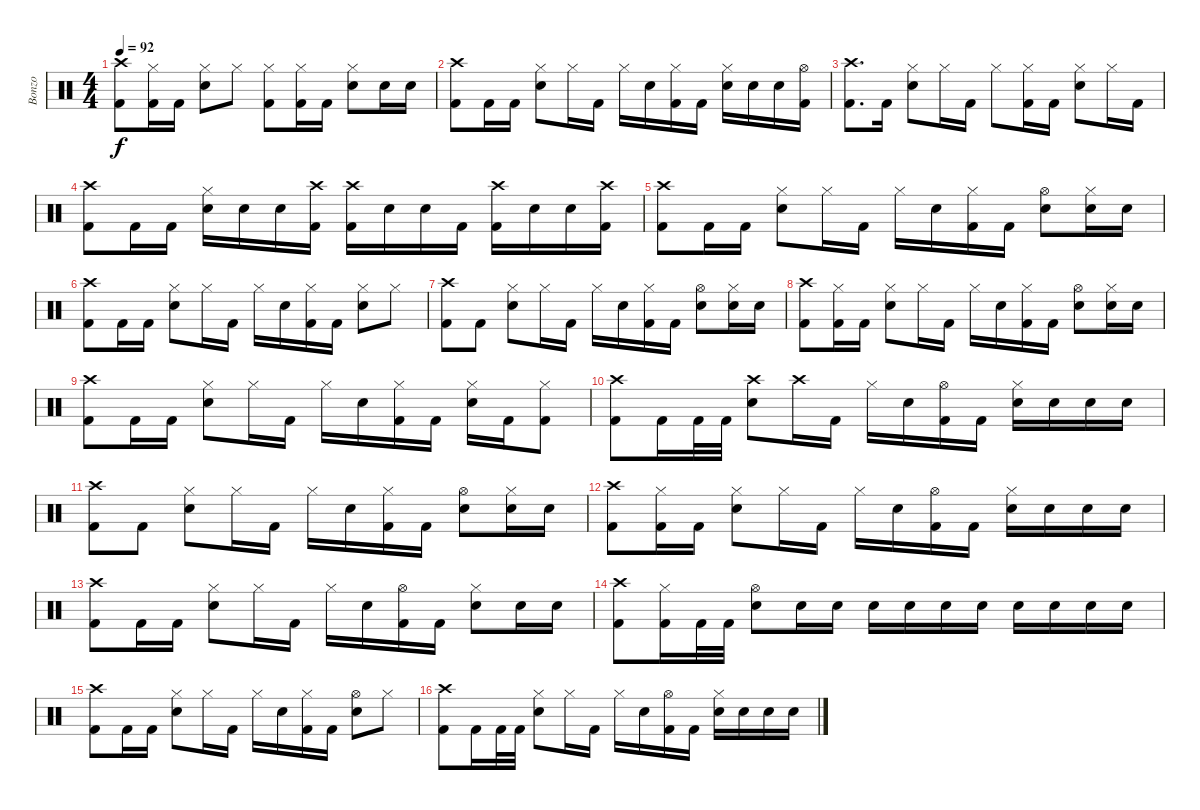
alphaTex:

\track ("Bonzo" "Bonzo") {instrument percussion}
\staff {score}
\articulation defaults
\ts (4 4)
\tempo 92
\clef neutral
\ks c
("Crash high (hit)" "Kick (hit) 2").8{dy f} ("Hi-Hat (closed)" "Kick (hit) 2").16 "Kick (hit) 2".16 ("Hi-Hat (closed)" "Snare (hit) 2").8 "Hi-Hat (closed)".8 ("Hi-Hat (closed)" "Kick (hit) 2").8 ("Hi-Hat (closed)" "Kick (hit) 2").16 "Kick (hit) 2".16 ("Hi-Hat (closed)" "Snare (hit) 2").8 "Snare (hit) 2".16 "Snare (hit) 2".16 |
("Crash high (hit)" "Kick (hit) 2").8 "Kick (hit) 2".16 "Kick (hit) 2".16 ("Hi-Hat (closed)" "Snare (hit) 2").8 "Hi-Hat (closed)".16 "Kick (hit) 2".16 "Hi-Hat (closed)".16 "Snare (hit) 2".16 ("Hi-Hat (closed)" "Kick (hit) 2").16 "Kick (hit) 2".16 ("Hi-Hat (closed)" "Snare (hit) 2").16 "Snare (hit) 2".16 "Snare (hit) 2".16 ("Hi-Hat (open)" "Kick (hit) 2").16 |
("Crash high (hit)" "Kick (hit) 2").8{d} "Kick (hit) 2".16 ("Hi-Hat (closed)" "Snare (hit) 2").8 "Hi-Hat (closed)".16 "Kick (hit) 2".16 "Hi-Hat (closed)".8 ("Hi-Hat (closed)" "Kick (hit) 2").16 "Kick (hit) 2".16 ("Hi-Hat (closed)" "Snare (hit) 2").8 "Hi-Hat (closed)".16 "Kick (hit) 2".16 |
("Crash high (hit)" "Kick (hit) 2").8 "Kick (hit) 2".16 "Kick (hit) 2".16 ("Hi-Hat (closed)" "Snare (hit) 2").16 "Snare (hit) 2".16 "Snare (hit) 2".16 ("Crash high (hit)" "Kick (hit) 2").16 ("Crash high (hit)" "Kick (hit) 2").16 "Snare (hit) 2".16 "Snare (hit) 2".16 "Kick (hit) 2".16 ("Crash high (hit)" "Kick (hit) 2").16 "Snare (hit) 2".16 "Snare (hit) 2".16 ("Crash high (hit)" "Kick (hit) 2").16 |
("Crash high (hit)" "Kick (hit) 2").8 "Kick (hit) 2".16 "Kick (hit) 2".16 ("Hi-Hat (closed)" "Snare (hit) 2").8 "Hi-Hat (closed)".16 "Kick (hit) 2".16 "Hi-Hat (closed)".16 "Snare (hit) 2".16 ("Hi-Hat (closed)" "Kick (hit) 2").16 "Kick (hit) 2".16 ("Hi-Hat (open)" "Snare (hit) 2").8 ("Hi-Hat (closed)" "Snare (hit) 2").16 "Snare (hit) 2".16 |
("Crash high (hit)" "Kick (hit) 2").8 "Kick (hit) 2".16 "Kick (hit) 2".16 ("Hi-Hat (closed)" "Snare (hit) 2").8 "Hi-Hat (closed)".16 "Kick (hit) 2".16 "Hi-Hat (closed)".16 "Snare (hit) 2".16 ("Hi-Hat (closed)" "Kick (hit) 2").16 "Kick (hit) 2".16 ("Hi-Hat (closed)" "Snare (hit) 2").8 "Hi-Hat (closed)".8 |
("Crash high (hit)" "Kick (hit) 2").8 "Kick (hit) 2".8 ("Hi-Hat (closed)" "Snare (hit) 2").8 "Hi-Hat (closed)".16 "Kick (hit) 2".16 "Hi-Hat (closed)".16 "Snare (hit) 2".16 ("Hi-Hat (closed)" "Kick (hit) 2").16 "Kick (hit) 2".16 ("Hi-Hat (open)" "Snare (hit) 2").8 ("Hi-Hat (closed)" "Snare (hit) 2").16 "Snare (hit) 2".16 |
("Crash high (hit)" "Kick (hit) 2").8 ("Hi-Hat (closed)" "Kick (hit) 2").16 "Kick (hit) 2".16 ("Hi-Hat (closed)" "Snare (hit) 2").8 "Hi-Hat (closed)".16 "Kick (hit) 2".16 "Hi-Hat (closed)".16 "Snare (hit) 2".16 ("Hi-Hat (closed)" "Kick (hit) 2").16 "Kick (hit) 2".16 ("Hi-Hat (open)" "Snare (hit) 2").8 ("Hi-Hat (closed)" "Snare (hit) 2").16 "Snare (hit) 2".16 |
("Crash high (hit)" "Kick (hit) 2").8 "Kick (hit) 2".16 "Kick (hit) 2".16 ("Hi-Hat (closed)" "Snare (hit) 2").8 "Hi-Hat (closed)".16 "Kick (hit) 2".16 "Hi-Hat (closed)".16 "Snare (hit) 2".16 ("Hi-Hat (closed)" "Kick (hit) 2").16 "Kick (hit) 2".16 ("Hi-Hat (closed)" "Snare (hit) 2").16 "Kick (hit) 2".16 ("Hi-Hat (closed)" "Kick (hit) 2").8 |
("Crash high (hit)" "Kick (hit) 2").8 "Kick (hit) 2".16 "Kick (hit) 2".32 "Kick (hit) 2".32 ("Crash high (hit)" "Snare (hit) 2").8 "Crash high (hit)".16 "Kick (hit) 2".16 "Hi-Hat (closed)".16 "Snare (hit) 2".16 ("Hi-Hat (open)" "Kick (hit) 2").16 "Kick (hit) 2".16 ("Hi-Hat (closed)" "Snare (hit) 2").16 "Snare (hit) 2".16 "Snare (hit) 2".16 "Snare (hit) 2".16 |
("Crash high (hit)" "Kick (hit) 2").8 "Kick (hit) 2".8 ("Hi-Hat (closed)" "Snare (hit) 2").8 "Hi-Hat (closed)".16 "Kick (hit) 2".16 "Hi-Hat (closed)".16 "Snare (hit) 2".16 ("Hi-Hat (closed)" "Kick (hit) 2").16 "Kick (hit) 2".16 ("Hi-Hat (open)" "Snare (hit) 2").8 ("Hi-Hat (closed)" "Snare (hit) 2").16 "Snare (hit) 2".16 |
("Crash high (hit)" "Kick (hit) 2").8 ("Hi-Hat (closed)" "Kick (hit) 2").16 "Kick (hit) 2".16 ("Hi-Hat (closed)" "Snare (hit) 2").8 "Hi-Hat (closed)".16 "Kick (hit) 2".16 "Hi-Hat (closed)".16 "Snare (hit) 2".16 ("Hi-Hat (open)" "Kick (hit) 2").16 "Kick (hit) 2".16 ("Hi-Hat (closed)" "Snare (hit) 2").16 "Snare (hit) 2".16 "Snare (hit) 2".16 "Snare (hit) 2".16 |
("Crash high (hit)" "Kick (hit) 2").8 "Kick (hit) 2".16 "Kick (hit) 2".16 ("Hi-Hat (closed)" "Snare (hit) 2").8 "Hi-Hat (closed)".16 "Kick (hit) 2".16 "Hi-Hat (closed)".16 "Snare (hit) 2".16 ("Hi-Hat (open)" "Kick (hit) 2").16 "Kick (hit) 2".16 ("Hi-Hat (closed)" "Snare (hit) 2").8 "Snare (hit) 2".16 "Snare (hit) 2".16 |
("Crash high (hit)" "Kick (hit) 2").8 ("Hi-Hat (closed)" "Kick (hit) 2").16 "Kick (hit) 2".32 "Kick (hit) 2".32 ("Hi-Hat (open)" "Snare (hit) 2").8 "Snare (hit) 2".16 "Snare (hit) 2".16 "Snare (hit) 2".16 "Snare (hit) 2".16 "Snare (hit) 2".16 "Snare (hit) 2".16 "Snare (hit) 2".16 "Snare (hit) 2".16 "Snare (hit) 2".16 "Snare (hit) 2".16 |
("Crash high (hit)" "Kick (hit) 2").8 "Kick (hit) 2".16 "Kick (hit) 2".16 ("Hi-Hat (closed)" "Snare (hit) 2").8 "Hi-Hat (closed)".16 "Kick (hit) 2".16 "Hi-Hat (closed)".16 "Snare (hit) 2".16 ("Hi-Hat (closed)" "Kick (hit) 2").16 "Kick (hit) 2".16 ("Hi-Hat (open)" "Snare (hit) 2").8 "Hi-Hat (closed)".8 |
("Crash high (hit)" "Kick (hit) 2").8 "Kick (hit) 2".16 "Kick (hit) 2".32 "Kick (hit) 2".32 ("Hi-Hat (closed)" "Snare (hit) 2").8 "Hi-Hat (closed)".16 "Kick (hit) 2".16 "Hi-Hat (closed)".16 "Snare (hit) 2".16 ("Hi-Hat (open)" "Kick (hit) 2").16 "Kick (hit) 2".16 ("Hi-Hat (closed)" "Snare (hit) 2").16 "Snare (hit) 2".16 "Snare (hit) 2".16 "Snare (hit) 2".16
